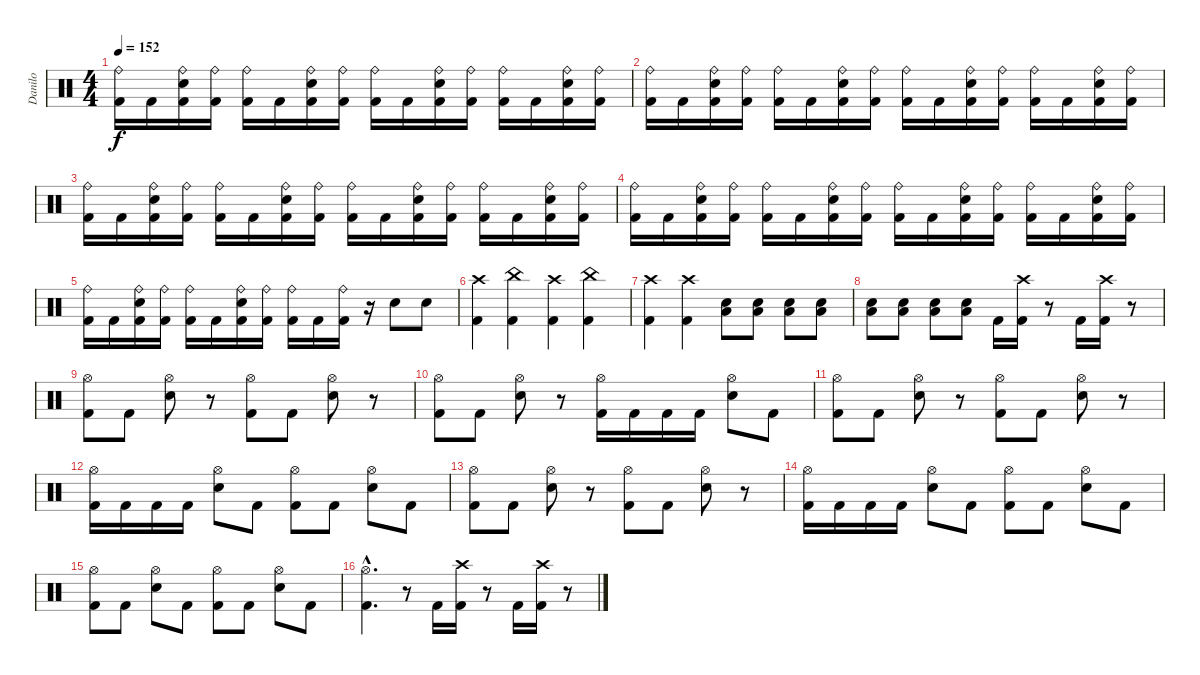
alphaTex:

\track ("Danilo" "Danilo") {instrument percussion}
\staff {score}
\articulation defaults
\ts (4 4)
\tempo 152
\clef neutral
\ks c
("Ride (bell)" "Kick (hit) 2").16{dy f} "Kick (hit) 2".16 ("Ride (bell)" "Snare (hit) 2" "Kick (hit) 2").16 ("Ride (bell)" "Kick (hit) 2").16 ("Ride (bell)" "Kick (hit) 2").16 "Kick (hit) 2".16 ("Ride (bell)" "Snare (hit) 2" "Kick (hit) 2").16 ("Ride (bell)" "Kick (hit) 2").16 ("Ride (bell)" "Kick (hit) 2").16 "Kick (hit) 2".16 ("Ride (bell)" "Snare (hit) 2" "Kick (hit) 2").16 ("Ride (bell)" "Kick (hit) 2").16 ("Ride (bell)" "Kick (hit) 2").16 "Kick (hit) 2".16 ("Ride (bell)" "Snare (hit) 2" "Kick (hit) 2").16 ("Ride (bell)" "Kick (hit) 2").16 |
("Ride (bell)" "Kick (hit) 2").16 "Kick (hit) 2".16 ("Ride (bell)" "Snare (hit) 2" "Kick (hit) 2").16 ("Ride (bell)" "Kick (hit) 2").16 ("Ride (bell)" "Kick (hit) 2").16 "Kick (hit) 2".16 ("Ride (bell)" "Snare (hit) 2" "Kick (hit) 2").16 ("Ride (bell)" "Kick (hit) 2").16 ("Ride (bell)" "Kick (hit) 2").16 "Kick (hit) 2".16 ("Ride (bell)" "Snare (hit) 2" "Kick (hit) 2").16 ("Ride (bell)" "Kick (hit) 2").16 ("Ride (bell)" "Kick (hit) 2").16 "Kick (hit) 2".16 ("Ride (bell)" "Snare (hit) 2" "Kick (hit) 2").16 ("Ride (bell)" "Kick (hit) 2").16 |
("Ride (bell)" "Kick (hit) 2").16 "Kick (hit) 2".16 ("Ride (bell)" "Snare (hit) 2" "Kick (hit) 2").16 ("Ride (bell)" "Kick (hit) 2").16 ("Ride (bell)" "Kick (hit) 2").16 "Kick (hit) 2".16 ("Ride (bell)" "Snare (hit) 2" "Kick (hit) 2").16 ("Ride (bell)" "Kick (hit) 2").16 ("Ride (bell)" "Kick (hit) 2").16 "Kick (hit) 2".16 ("Ride (bell)" "Snare (hit) 2" "Kick (hit) 2").16 ("Ride (bell)" "Kick (hit) 2").16 ("Ride (bell)" "Kick (hit) 2").16 "Kick (hit) 2".16 ("Ride (bell)" "Snare (hit) 2" "Kick (hit) 2").16 ("Ride (bell)" "Kick (hit) 2").16 |
("Ride (bell)" "Kick (hit) 2").16 "Kick (hit) 2".16 ("Ride (bell)" "Snare (hit) 2" "Kick (hit) 2").16 ("Ride (bell)" "Kick (hit) 2").16 ("Ride (bell)" "Kick (hit) 2").16 "Kick (hit) 2".16 ("Ride (bell)" "Snare (hit) 2" "Kick (hit) 2").16 ("Ride (bell)" "Kick (hit) 2").16 ("Ride (bell)" "Kick (hit) 2").16 "Kick (hit) 2".16 ("Ride (bell)" "Snare (hit) 2" "Kick (hit) 2").16 ("Ride (bell)" "Kick (hit) 2").16 ("Ride (bell)" "Kick (hit) 2").16 "Kick (hit) 2".16 ("Ride (bell)" "Snare (hit) 2" "Kick (hit) 2").16 ("Ride (bell)" "Kick (hit) 2").16 |
("Ride (bell)" "Kick (hit) 2").16 "Kick (hit) 2".16 ("Ride (bell)" "Snare (hit) 2" "Kick (hit) 2").16 ("Ride (bell)" "Kick (hit) 2").16 ("Ride (bell)" "Kick (hit) 2").16 "Kick (hit) 2".16 ("Ride (bell)" "Snare (hit) 2" "Kick (hit) 2").16 ("Ride (bell)" "Kick (hit) 2").16 ("Ride (bell)" "Kick (hit) 2").16 "Kick (hit) 2".16 ("Ride (bell)" "Kick (hit) 2").16 r.16 "Snare (hit) 2".8 "Snare (hit) 2".8 |
("Kick (hit) 2" "Crash high (hit)").4 ("Kick (hit) 2" "China (hit)").4 ("Kick (hit) 2" "Crash high (hit)").4 ("Kick (hit) 2" "China (hit)").4 |
("Kick (hit) 2" "Crash high (hit)").4 ("Kick (hit) 2" "Crash high (hit)").4 ("Low Floor Tom (hit)" "Snare (hit) 2").8 ("Low Floor Tom (hit)" "Snare (hit) 2").8 ("Low Floor Tom (hit)" "Snare (hit) 2").8 ("Low Floor Tom (hit)" "Snare (hit) 2").8 |
("Low Floor Tom (hit)" "Snare (hit) 2").8 ("Low Floor Tom (hit)" "Snare (hit) 2").8 ("Low Floor Tom (hit)" "Snare (hit) 2").8 ("Low Floor Tom (hit)" "Snare (hit) 2").8 "Kick (hit) 2".16 ("Crash high (hit)" "Kick (hit) 2").16 r.8 "Kick (hit) 2".16 ("Crash high (hit)" "Kick (hit) 2").16 r.8 |
("Hi-Hat (open)" "Kick (hit) 2").8 "Kick (hit) 2".8 ("Hi-Hat (open)" "Snare (hit) 2").8 r.8 ("Hi-Hat (open)" "Kick (hit) 2").8 "Kick (hit) 2".8 ("Hi-Hat (open)" "Snare (hit) 2").8 r.8 |
("Hi-Hat (open)" "Kick (hit) 2").8 "Kick (hit) 2".8 ("Hi-Hat (open)" "Snare (hit) 2").8 r.8 ("Hi-Hat (open)" "Kick (hit) 2").16 "Kick (hit) 2".16 "Kick (hit) 2".16 "Kick (hit) 2".16 ("Hi-Hat (open)" "Snare (hit) 2").8 "Kick (hit) 2".8 |
("Hi-Hat (open)" "Kick (hit) 2").8 "Kick (hit) 2".8 ("Hi-Hat (open)" "Snare (hit) 2").8 r.8 ("Hi-Hat (open)" "Kick (hit) 2").8 "Kick (hit) 2".8 ("Hi-Hat (open)" "Snare (hit) 2").8 r.8 |
("Hi-Hat (open)" "Kick (hit) 2").16 "Kick (hit) 2".16 "Kick (hit) 2".16 "Kick (hit) 2".16 ("Hi-Hat (open)" "Snare (hit) 2").8 "Kick (hit) 2".8 ("Hi-Hat (open)" "Kick (hit) 2").8 "Kick (hit) 2".8 ("Hi-Hat (open)" "Snare (hit) 2").8 "Kick (hit) 2".8 |
("Hi-Hat (open)" "Kick (hit) 2").8 "Kick (hit) 2".8 ("Hi-Hat (open)" "Snare (hit) 2").8 r.8 ("Hi-Hat (open)" "Kick (hit) 2").8 "Kick (hit) 2".8 ("Hi-Hat (open)" "Snare (hit) 2").8 r.8 |
("Hi-Hat (open)" "Kick (hit) 2").16 "Kick (hit) 2".16 "Kick (hit) 2".16 "Kick (hit) 2".16 ("Hi-Hat (open)" "Snare (hit) 2").8 "Kick (hit) 2".8 ("Hi-Hat (open)" "Kick (hit) 2").8 "Kick (hit) 2".8 ("Hi-Hat (open)" "Snare (hit) 2").8 "Kick (hit) 2".8 |
("Hi-Hat (open)" "Kick (hit) 2").8 "Kick (hit) 2".8 ("Hi-Hat (open)" "Snare (hit) 2").8 "Kick (hit) 2".8 ("Hi-Hat (open)" "Kick (hit) 2").8 "Kick (hit) 2".8 ("Hi-Hat (open)" "Snare (hit) 2").8 "Kick (hit) 2".8 |
("Hi-Hat (open)"{hac} "Kick (hit) 2"{hac}).4{d} r.8 "Kick (hit) 2".16 ("Crash high (hit)" "Kick (hit) 2").16 r.8 "Kick (hit) 2".16 ("Crash high (hit)" "Kick (hit) 2").16 r.8
